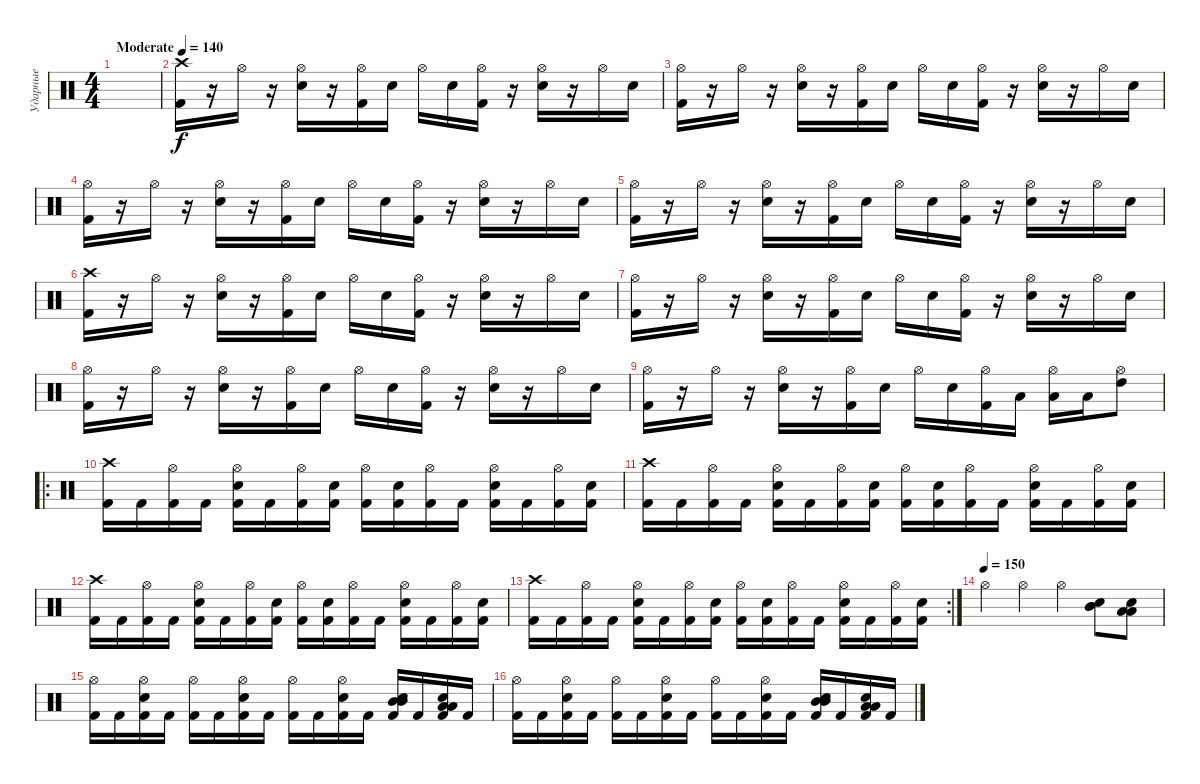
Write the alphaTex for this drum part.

\track ("Ударные" "Ударные") {instrument percussion}
\staff {score}
\articulation defaults
\ts (4 4)
\tempo (140 "Moderate")
\clef neutral
\ks c
|
("Crash high (hit)" "Kick (hit) 2").16 r.16 "Hi-Hat (open)".16 r.16 ("Hi-Hat (open)" "Electric Snare (hit)").16 r.16 ("Hi-Hat (open)" "Kick (hit) 2").16 "Electric Snare (hit)".16 "Hi-Hat (open)".16 "Electric Snare (hit)".16 ("Hi-Hat (open)" "Kick (hit) 2").16 r.16 ("Hi-Hat (open)" "Electric Snare (hit)").16 r.16 "Hi-Hat (open)".16 "Electric Snare (hit)".16 |
("Hi-Hat (open)" "Kick (hit) 2").16 r.16 "Hi-Hat (open)".16 r.16 ("Hi-Hat (open)" "Electric Snare (hit)").16 r.16 ("Hi-Hat (open)" "Kick (hit) 2").16 "Electric Snare (hit)".16 "Hi-Hat (open)".16 "Electric Snare (hit)".16 ("Hi-Hat (open)" "Kick (hit) 2").16 r.16 ("Hi-Hat (open)" "Electric Snare (hit)").16 r.16 "Hi-Hat (open)".16 "Electric Snare (hit)".16 |
("Hi-Hat (open)" "Kick (hit) 2").16 r.16 "Hi-Hat (open)".16 r.16 ("Hi-Hat (open)" "Electric Snare (hit)").16 r.16 ("Hi-Hat (open)" "Kick (hit) 2").16 "Electric Snare (hit)".16 "Hi-Hat (open)".16 "Electric Snare (hit)".16 ("Hi-Hat (open)" "Kick (hit) 2").16 r.16 ("Hi-Hat (open)" "Electric Snare (hit)").16 r.16 "Hi-Hat (open)".16 "Electric Snare (hit)".16 |
("Hi-Hat (open)" "Kick (hit) 2").16 r.16 "Hi-Hat (open)".16 r.16 ("Hi-Hat (open)" "Electric Snare (hit)").16 r.16 ("Hi-Hat (open)" "Kick (hit) 2").16 "Electric Snare (hit)".16 "Hi-Hat (open)".16 "Electric Snare (hit)".16 ("Hi-Hat (open)" "Kick (hit) 2").16 r.16 ("Hi-Hat (open)" "Electric Snare (hit)").16 r.16 "Hi-Hat (open)".16 "Electric Snare (hit)".16 |
("Crash high (hit)" "Kick (hit) 2").16 r.16 "Hi-Hat (open)".16 r.16 ("Hi-Hat (open)" "Electric Snare (hit)").16 r.16 ("Hi-Hat (open)" "Kick (hit) 2").16 "Electric Snare (hit)".16 "Hi-Hat (open)".16 "Electric Snare (hit)".16 ("Hi-Hat (open)" "Kick (hit) 2").16 r.16 ("Hi-Hat (open)" "Electric Snare (hit)").16 r.16 "Hi-Hat (open)".16 "Electric Snare (hit)".16 |
("Hi-Hat (open)" "Kick (hit) 2").16 r.16 "Hi-Hat (open)".16 r.16 ("Hi-Hat (open)" "Electric Snare (hit)").16 r.16 ("Hi-Hat (open)" "Kick (hit) 2").16 "Electric Snare (hit)".16 "Hi-Hat (open)".16 "Electric Snare (hit)".16 ("Hi-Hat (open)" "Kick (hit) 2").16 r.16 ("Hi-Hat (open)" "Electric Snare (hit)").16 r.16 "Hi-Hat (open)".16 "Electric Snare (hit)".16 |
("Hi-Hat (open)" "Kick (hit) 2").16 r.16 "Hi-Hat (open)".16 r.16 ("Hi-Hat (open)" "Electric Snare (hit)").16 r.16 ("Hi-Hat (open)" "Kick (hit) 2").16 "Electric Snare (hit)".16 "Hi-Hat (open)".16 "Electric Snare (hit)".16 ("Hi-Hat (open)" "Kick (hit) 2").16 r.16 ("Hi-Hat (open)" "Electric Snare (hit)").16 r.16 "Hi-Hat (open)".16 "Electric Snare (hit)".16 |
("Hi-Hat (open)" "Kick (hit) 2").16 r.16 "Hi-Hat (open)".16 r.16 ("Hi-Hat (open)" "Electric Snare (hit)").16 r.16 ("Hi-Hat (open)" "Kick (hit) 2").16 "Electric Snare (hit)".16 "Hi-Hat (open)".16 "Electric Snare (hit)".16 ("Hi-Hat (open)" "Kick (hit) 2").16 "Low Tom (hit)".16 ("Hi-Hat (open)" "Low Tom (hit)").16 "Low Tom (hit)".16 ("Hi-Hat (open)" "High Tom (hit)").8 |
\ro
("Crash high (hit)" "Kick (hit) 2").16 "Kick (hit) 2".16 ("Hi-Hat (open)" "Kick (hit) 2").16 "Kick (hit) 2".16 ("Hi-Hat (open)" "Electric Snare (hit)" "Kick (hit) 2").16 "Kick (hit) 2".16 ("Hi-Hat (open)" "Kick (hit) 2").16 ("Kick (hit) 2" "Electric Snare (hit)").16 ("Hi-Hat (open)" "Kick (hit) 2").16 ("Kick (hit) 2" "Electric Snare (hit)").16 ("Hi-Hat (open)" "Kick (hit) 2").16 "Kick (hit) 2".16 ("Hi-Hat (open)" "Electric Snare (hit)" "Kick (hit) 2").16 "Kick (hit) 2".16 ("Hi-Hat (open)" "Kick (hit) 2").16 ("Kick (hit) 2" "Electric Snare (hit)").16 |
("Crash high (hit)" "Kick (hit) 2").16 "Kick (hit) 2".16 ("Hi-Hat (open)" "Kick (hit) 2").16 "Kick (hit) 2".16 ("Hi-Hat (open)" "Electric Snare (hit)" "Kick (hit) 2").16 "Kick (hit) 2".16 ("Hi-Hat (open)" "Kick (hit) 2").16 ("Kick (hit) 2" "Electric Snare (hit)").16 ("Hi-Hat (open)" "Kick (hit) 2").16 ("Kick (hit) 2" "Electric Snare (hit)").16 ("Hi-Hat (open)" "Kick (hit) 2").16 "Kick (hit) 2".16 ("Hi-Hat (open)" "Electric Snare (hit)" "Kick (hit) 2").16 "Kick (hit) 2".16 ("Hi-Hat (open)" "Kick (hit) 2").16 ("Kick (hit) 2" "Electric Snare (hit)").16 |
("Crash high (hit)" "Kick (hit) 2").16 "Kick (hit) 2".16 ("Hi-Hat (open)" "Kick (hit) 2").16 "Kick (hit) 2".16 ("Hi-Hat (open)" "Electric Snare (hit)" "Kick (hit) 2").16 "Kick (hit) 2".16 ("Hi-Hat (open)" "Kick (hit) 2").16 ("Kick (hit) 2" "Electric Snare (hit)").16 ("Hi-Hat (open)" "Kick (hit) 2").16 ("Kick (hit) 2" "Electric Snare (hit)").16 ("Hi-Hat (open)" "Kick (hit) 2").16 "Kick (hit) 2".16 ("Hi-Hat (open)" "Electric Snare (hit)" "Kick (hit) 2").16 "Kick (hit) 2".16 ("Hi-Hat (open)" "Kick (hit) 2").16 ("Kick (hit) 2" "Electric Snare (hit)").16 |
\rc 2
("Crash high (hit)" "Kick (hit) 2").16 "Kick (hit) 2".16 ("Hi-Hat (open)" "Kick (hit) 2").16 "Kick (hit) 2".16 ("Hi-Hat (open)" "Electric Snare (hit)" "Kick (hit) 2").16 "Kick (hit) 2".16 ("Hi-Hat (open)" "Kick (hit) 2").16 ("Kick (hit) 2" "Electric Snare (hit)").16 ("Hi-Hat (open)" "Kick (hit) 2").16 ("Kick (hit) 2" "Electric Snare (hit)").16 ("Hi-Hat (open)" "Kick (hit) 2").16 "Kick (hit) 2".16 ("Hi-Hat (open)" "Electric Snare (hit)" "Kick (hit) 2").16 "Kick (hit) 2".16 ("Hi-Hat (open)" "Kick (hit) 2").16 ("Kick (hit) 2" "Electric Snare (hit)").16 |
\tempo (150)
"Hi-Hat (open)".4 "Hi-Hat (open)".4 "Hi-Hat (open)".4 ("Mid Tom (hit)" "Mid Tom (hit)" "Electric Snare (hit)").8 ("Low Tom (hit)" "Low Tom (hit)" "Electric Snare (hit)").8 |
("Kick (hit) 2" "Hi-Hat (open)").16 "Kick (hit) 2".16 ("Kick (hit) 2" "Electric Snare (hit)" "Hi-Hat (open)").16 "Kick (hit) 2".16 ("Kick (hit) 2" "Hi-Hat (open)").16 "Kick (hit) 2".16 ("Kick (hit) 2" "Electric Snare (hit)" "Hi-Hat (open)").16 "Kick (hit) 2".16 ("Kick (hit) 2" "Hi-Hat (open)").16 "Kick (hit) 2".16 ("Kick (hit) 2" "Electric Snare (hit)" "Hi-Hat (open)").16 "Kick (hit) 2".16 ("Kick (hit) 2" "Electric Snare (hit)" "Mid Tom (hit)" "Mid Tom (hit)").16 "Kick (hit) 2".16 ("Kick (hit) 2" "Electric Snare (hit)" "Low Tom (hit)" "Low Tom (hit)").16 "Kick (hit) 2".16 |
("Kick (hit) 2" "Hi-Hat (open)").16 "Kick (hit) 2".16 ("Kick (hit) 2" "Electric Snare (hit)" "Hi-Hat (open)").16 "Kick (hit) 2".16 ("Kick (hit) 2" "Hi-Hat (open)").16 "Kick (hit) 2".16 ("Kick (hit) 2" "Electric Snare (hit)" "Hi-Hat (open)").16 "Kick (hit) 2".16 ("Kick (hit) 2" "Hi-Hat (open)").16 "Kick (hit) 2".16 ("Kick (hit) 2" "Electric Snare (hit)" "Hi-Hat (open)").16 "Kick (hit) 2".16 ("Kick (hit) 2" "Electric Snare (hit)" "Mid Tom (hit)" "Mid Tom (hit)").16 "Kick (hit) 2".16 ("Kick (hit) 2" "Electric Snare (hit)" "Low Tom (hit)" "Low Tom (hit)").16 "Kick (hit) 2".16
